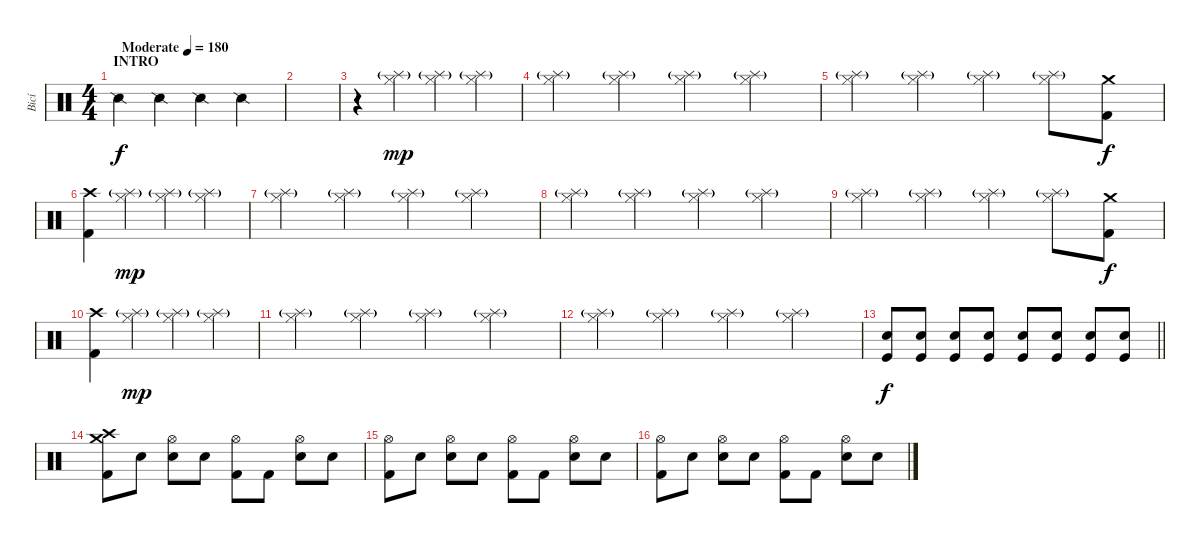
\track ("Bicí" "Bicí") {instrument percussion}
\staff {score}
\articulation defaults
\ts (4 4)
\section ("" "INTRO")
\tempo (180 "Moderate")
\clef neutral
\ks c "Snare (side stick) 2".4{dy f} "Snare (side stick) 2".4 "Snare (side stick) 2".4 "Snare (side stick) 2".4
|
|
r.4 ("Splash (hit)"{g} "Hi-Hat (closed)").4{dy mp} ("Splash (hit)"{g} "Hi-Hat (closed)").4 ("Splash (hit)"{g} "Hi-Hat (closed)").4 |
("Splash (hit)"{g} "Hi-Hat (closed)").4 ("Splash (hit)"{g} "Hi-Hat (closed)").4 ("Splash (hit)"{g} "Hi-Hat (closed)").4 ("Splash (hit)"{g} "Hi-Hat (closed)").4 |
("Splash (hit)"{g} "Hi-Hat (closed)").4 ("Splash (hit)"{g} "Hi-Hat (closed)").4 ("Splash (hit)"{g} "Hi-Hat (closed)").4 ("Splash (hit)"{g} "Hi-Hat (closed)").8 ("Crash medium (hit)" "Kick (hit) 2").8{dy f} |
("Crash high (hit)" "Kick (hit) 2").4 ("Hi-Hat (closed)" "Splash (hit)"{g}).4{dy mp} ("Hi-Hat (closed)" "Splash (hit)"{g}).4 ("Hi-Hat (closed)" "Splash (hit)"{g}).4 |
("Hi-Hat (closed)" "Splash (hit)"{g}).4 ("Hi-Hat (closed)" "Splash (hit)"{g}).4 ("Hi-Hat (closed)" "Splash (hit)"{g}).4 ("Hi-Hat (closed)" "Splash (hit)"{g}).4 |
("Hi-Hat (closed)" "Splash (hit)"{g}).4 ("Hi-Hat (closed)" "Splash (hit)"{g}).4 ("Hi-Hat (closed)" "Splash (hit)"{g}).4 ("Hi-Hat (closed)" "Splash (hit)"{g}).4 |
("Hi-Hat (closed)" "Splash (hit)"{g}).4 ("Hi-Hat (closed)" "Splash (hit)"{g}).4 ("Hi-Hat (closed)" "Splash (hit)"{g}).4 ("Hi-Hat (closed)" "Splash (hit)"{g}).8 ("Crash medium (hit)" "Kick (hit) 2").8{dy f} |
("Crash high (hit)" "Kick (hit) 2").4 ("Hi-Hat (closed)" "Splash (hit)"{g}).4{dy mp} ("Hi-Hat (closed)" "Splash (hit)"{g}).4 ("Hi-Hat (closed)" "Splash (hit)"{g}).4 |
("Hi-Hat (closed)" "Splash (hit)"{g}).4 ("Hi-Hat (closed)" "Splash (hit)"{g}).4 ("Hi-Hat (closed)" "Splash (hit)"{g}).4 ("Hi-Hat (closed)" "Splash (hit)"{g}).4 |
("Hi-Hat (closed)" "Splash (hit)"{g}).4 ("Hi-Hat (closed)" "Splash (hit)"{g}).4 ("Hi-Hat (closed)" "Splash (hit)"{g}).4 ("Hi-Hat (closed)" "Splash (hit)"{g}).4 |
\barLineRight lightlight
("Electric Snare (hit)" "Kick (hit)").8{dy f} ("Electric Snare (hit)" "Kick (hit)").8 ("Electric Snare (hit)" "Kick (hit)").8 ("Electric Snare (hit)" "Kick (hit)").8 ("Electric Snare (hit)" "Kick (hit)").8 ("Electric Snare (hit)" "Kick (hit)").8 ("Electric Snare (hit)" "Kick (hit)").8 ("Electric Snare (hit)" "Kick (hit)").8 |
\section ("" "")
("Crash medium (hit)" "Crash high (hit)" "Kick (hit) 2").8 "Snare (hit)".8 ("Hi-Hat (open)" "Electric Snare (hit)").8 "Snare (hit)".8 ("Hi-Hat (open)" "Kick (hit) 2").8 "Kick (hit) 2".8 ("Hi-Hat (open)" "Electric Snare (hit)").8 "Snare (hit)".8 |
("Hi-Hat (open)" "Kick (hit) 2").8 "Snare (hit)".8 ("Hi-Hat (open)" "Electric Snare (hit)").8 "Snare (hit)".8 ("Hi-Hat (open)" "Kick (hit) 2").8 "Kick (hit) 2".8 ("Hi-Hat (open)" "Electric Snare (hit)").8 "Snare (hit)".8 |
("Hi-Hat (open)" "Kick (hit) 2").8 "Snare (hit)".8 ("Hi-Hat (open)" "Electric Snare (hit)").8 "Snare (hit)".8 ("Hi-Hat (open)" "Kick (hit) 2").8 "Kick (hit) 2".8 ("Hi-Hat (open)" "Electric Snare (hit)").8 "Snare (hit)".8
